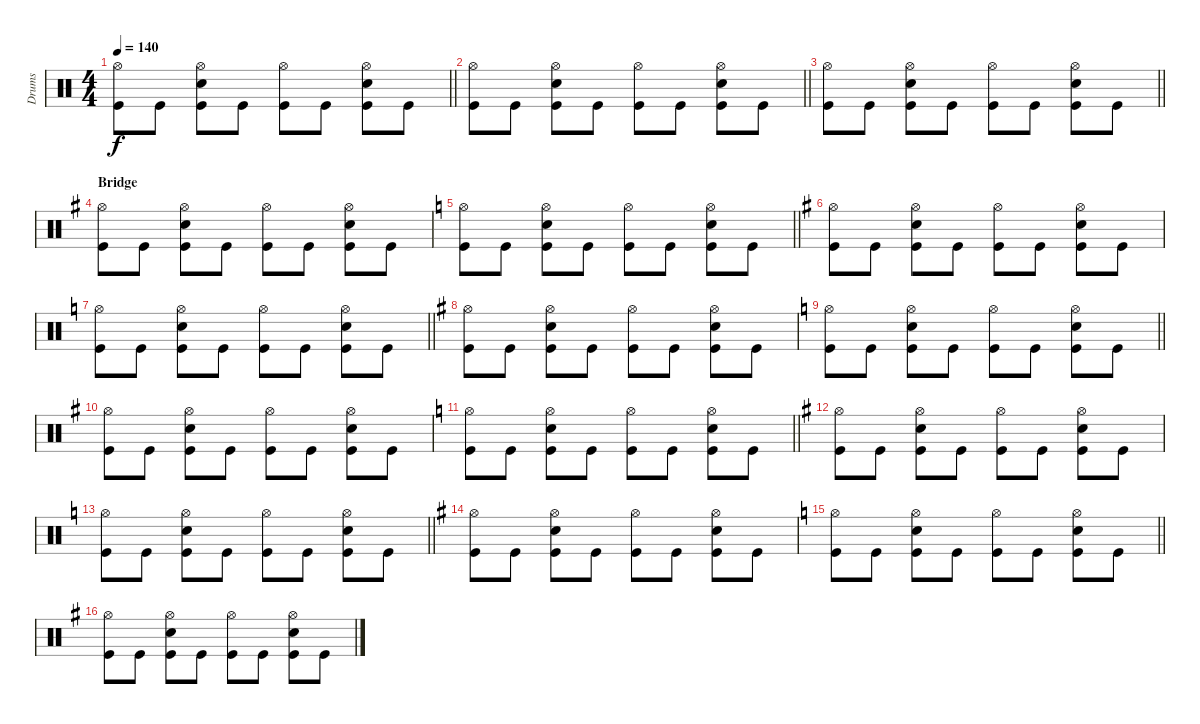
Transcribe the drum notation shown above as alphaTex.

\track ("Drums" "Drums") {instrument percussion}
\staff {score}
\articulation defaults
\ts (4 4)
\tempo 140
\clef neutral
\barLineRight lightlight
\ks c
("Hi-Hat (open)" "Kick (hit)").8{dy f} "Kick (hit)".8 ("Hi-Hat (open)" "Snare (hit) 2" "Kick (hit)").8 "Kick (hit)".8 ("Hi-Hat (open)" "Kick (hit)").8 "Kick (hit)".8 ("Hi-Hat (open)" "Snare (hit) 2" "Kick (hit)").8 "Kick (hit)".8 |
\barLineRight lightlight
("Hi-Hat (open)" "Kick (hit)").8 "Kick (hit)".8 ("Hi-Hat (open)" "Snare (hit) 2" "Kick (hit)").8 "Kick (hit)".8 ("Hi-Hat (open)" "Kick (hit)").8 "Kick (hit)".8 ("Hi-Hat (open)" "Snare (hit) 2" "Kick (hit)").8 "Kick (hit)".8 |
\barLineRight lightlight
("Hi-Hat (open)" "Kick (hit)").8 "Kick (hit)".8 ("Hi-Hat (open)" "Snare (hit) 2" "Kick (hit)").8 "Kick (hit)".8 ("Hi-Hat (open)" "Kick (hit)").8 "Kick (hit)".8 ("Hi-Hat (open)" "Snare (hit) 2" "Kick (hit)").8 "Kick (hit)".8 |
\section ("" "Bridge")
\ks g
("Hi-Hat (open)" "Kick (hit)").8 "Kick (hit)".8 ("Hi-Hat (open)" "Snare (hit) 2" "Kick (hit)").8 "Kick (hit)".8 ("Hi-Hat (open)" "Kick (hit)").8 "Kick (hit)".8 ("Hi-Hat (open)" "Snare (hit) 2" "Kick (hit)").8 "Kick (hit)".8 |
\barLineRight lightlight
\ks c
("Hi-Hat (open)" "Kick (hit)").8 "Kick (hit)".8 ("Hi-Hat (open)" "Snare (hit) 2" "Kick (hit)").8 "Kick (hit)".8 ("Hi-Hat (open)" "Kick (hit)").8 "Kick (hit)".8 ("Hi-Hat (open)" "Snare (hit) 2" "Kick (hit)").8 "Kick (hit)".8 |
\ks g
("Hi-Hat (open)" "Kick (hit)").8 "Kick (hit)".8 ("Hi-Hat (open)" "Snare (hit) 2" "Kick (hit)").8 "Kick (hit)".8 ("Hi-Hat (open)" "Kick (hit)").8 "Kick (hit)".8 ("Hi-Hat (open)" "Snare (hit) 2" "Kick (hit)").8 "Kick (hit)".8 |
\barLineRight lightlight
\ks c
("Hi-Hat (open)" "Kick (hit)").8 "Kick (hit)".8 ("Hi-Hat (open)" "Snare (hit) 2" "Kick (hit)").8 "Kick (hit)".8 ("Hi-Hat (open)" "Kick (hit)").8 "Kick (hit)".8 ("Hi-Hat (open)" "Snare (hit) 2" "Kick (hit)").8 "Kick (hit)".8 |
\ks g
("Hi-Hat (open)" "Kick (hit)").8 "Kick (hit)".8 ("Hi-Hat (open)" "Snare (hit) 2" "Kick (hit)").8 "Kick (hit)".8 ("Hi-Hat (open)" "Kick (hit)").8 "Kick (hit)".8 ("Hi-Hat (open)" "Snare (hit) 2" "Kick (hit)").8 "Kick (hit)".8 |
\barLineRight lightlight
\ks c
("Hi-Hat (open)" "Kick (hit)").8 "Kick (hit)".8 ("Hi-Hat (open)" "Snare (hit) 2" "Kick (hit)").8 "Kick (hit)".8 ("Hi-Hat (open)" "Kick (hit)").8 "Kick (hit)".8 ("Hi-Hat (open)" "Snare (hit) 2" "Kick (hit)").8 "Kick (hit)".8 |
\ks g
("Hi-Hat (open)" "Kick (hit)").8 "Kick (hit)".8 ("Hi-Hat (open)" "Snare (hit) 2" "Kick (hit)").8 "Kick (hit)".8 ("Hi-Hat (open)" "Kick (hit)").8 "Kick (hit)".8 ("Hi-Hat (open)" "Snare (hit) 2" "Kick (hit)").8 "Kick (hit)".8 |
\barLineRight lightlight
\ks c
("Hi-Hat (open)" "Kick (hit)").8 "Kick (hit)".8 ("Hi-Hat (open)" "Snare (hit) 2" "Kick (hit)").8 "Kick (hit)".8 ("Hi-Hat (open)" "Kick (hit)").8 "Kick (hit)".8 ("Hi-Hat (open)" "Snare (hit) 2" "Kick (hit)").8 "Kick (hit)".8 |
\ks g
("Hi-Hat (open)" "Kick (hit)").8 "Kick (hit)".8 ("Hi-Hat (open)" "Snare (hit) 2" "Kick (hit)").8 "Kick (hit)".8 ("Hi-Hat (open)" "Kick (hit)").8 "Kick (hit)".8 ("Hi-Hat (open)" "Snare (hit) 2" "Kick (hit)").8 "Kick (hit)".8 |
\barLineRight lightlight
\ks c
("Hi-Hat (open)" "Kick (hit)").8 "Kick (hit)".8 ("Hi-Hat (open)" "Snare (hit) 2" "Kick (hit)").8 "Kick (hit)".8 ("Hi-Hat (open)" "Kick (hit)").8 "Kick (hit)".8 ("Hi-Hat (open)" "Snare (hit) 2" "Kick (hit)").8 "Kick (hit)".8 |
\ks g
("Hi-Hat (open)" "Kick (hit)").8 "Kick (hit)".8 ("Hi-Hat (open)" "Snare (hit) 2" "Kick (hit)").8 "Kick (hit)".8 ("Hi-Hat (open)" "Kick (hit)").8 "Kick (hit)".8 ("Hi-Hat (open)" "Snare (hit) 2" "Kick (hit)").8 "Kick (hit)".8 |
\barLineRight lightlight
\ks c
("Hi-Hat (open)" "Kick (hit)").8 "Kick (hit)".8 ("Hi-Hat (open)" "Snare (hit) 2" "Kick (hit)").8 "Kick (hit)".8 ("Hi-Hat (open)" "Kick (hit)").8 "Kick (hit)".8 ("Hi-Hat (open)" "Snare (hit) 2" "Kick (hit)").8 "Kick (hit)".8 |
\ks g
("Hi-Hat (open)" "Kick (hit)").8 "Kick (hit)".8 ("Hi-Hat (open)" "Snare (hit) 2" "Kick (hit)").8 "Kick (hit)".8 ("Hi-Hat (open)" "Kick (hit)").8 "Kick (hit)".8 ("Hi-Hat (open)" "Snare (hit) 2" "Kick (hit)").8 "Kick (hit)".8
